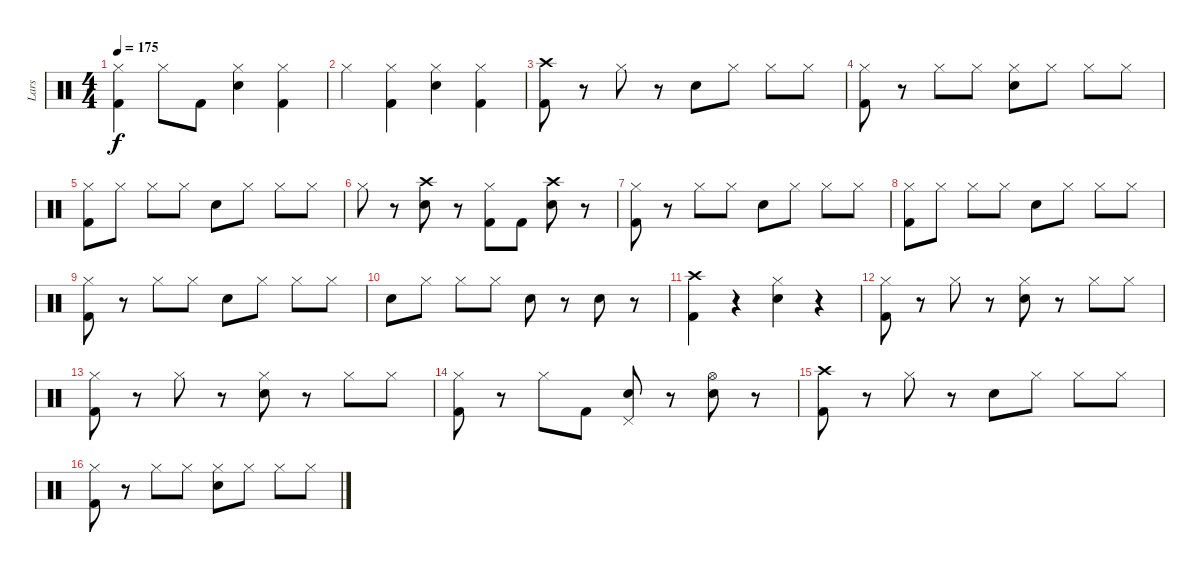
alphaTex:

\track ("Lars" "Lars") {instrument percussion}
\staff {score}
\articulation defaults
\ts (4 4)
\tempo 175
\clef neutral
\ks c
("Hi-Hat (closed)" "Kick (hit) 2").4{dy f} "Hi-Hat (closed)".8 "Kick (hit) 2".8 ("Hi-Hat (closed)" "Electric Snare (hit)").4 ("Hi-Hat (closed)" "Kick (hit) 2").4 |
"Hi-Hat (closed)".4 ("Hi-Hat (closed)" "Kick (hit) 2").4 ("Hi-Hat (closed)" "Electric Snare (hit)").4 ("Hi-Hat (closed)" "Kick (hit) 2").4 |
("Crash high (hit)" "Kick (hit) 2").8 r.8 "Hi-Hat (closed)".8 r.8 "Electric Snare (hit)".8 "Hi-Hat (closed)".8 "Hi-Hat (closed)".8 "Hi-Hat (closed)".8 |
("Hi-Hat (closed)" "Kick (hit) 2").8 r.8 "Hi-Hat (closed)".8 "Hi-Hat (closed)".8 ("Hi-Hat (closed)" "Electric Snare (hit)").8 "Hi-Hat (closed)".8 "Hi-Hat (closed)".8 "Hi-Hat (closed)".8 |
("Hi-Hat (closed)" "Kick (hit) 2").8 "Hi-Hat (closed)".8 "Hi-Hat (closed)".8 "Hi-Hat (closed)".8 "Electric Snare (hit)".8 "Hi-Hat (closed)".8 "Hi-Hat (closed)".8 "Hi-Hat (closed)".8 |
"Hi-Hat (closed)".8 r.8 ("Crash high (hit)" "Electric Snare (hit)").8 r.8 ("Hi-Hat (closed)" "Kick (hit) 2").8 "Kick (hit) 2".8 ("Crash high (hit)" "Electric Snare (hit)").8 r.8 |
("Hi-Hat (closed)" "Kick (hit) 2").8 r.8 "Hi-Hat (closed)".8 "Hi-Hat (closed)".8 "Electric Snare (hit)".8 "Hi-Hat (closed)".8 "Hi-Hat (closed)".8 "Hi-Hat (closed)".8 |
("Hi-Hat (closed)" "Kick (hit) 2").8 "Hi-Hat (closed)".8 "Hi-Hat (closed)".8 "Hi-Hat (closed)".8 "Electric Snare (hit)".8 "Hi-Hat (closed)".8 "Hi-Hat (closed)".8 "Hi-Hat (closed)".8 |
("Hi-Hat (closed)" "Kick (hit) 2").8 r.8 "Hi-Hat (closed)".8 "Hi-Hat (closed)".8 "Electric Snare (hit)".8 "Hi-Hat (closed)".8 "Hi-Hat (closed)".8 "Hi-Hat (closed)".8 |
"Electric Snare (hit)".8 "Hi-Hat (closed)".8 "Hi-Hat (closed)".8 "Hi-Hat (closed)".8 "Electric Snare (hit)".8 r.8 "Electric Snare (hit)".8 r.8 |
("Crash high (hit)" "Kick (hit) 2").4 r.4 ("Hi-Hat (closed)" "Electric Snare (hit)").4 r.4 |
("Hi-Hat (closed)" "Kick (hit) 2").8 r.8 "Hi-Hat (closed)".8 r.8 ("Hi-Hat (closed)" "Electric Snare (hit)").8 r.8 "Hi-Hat (closed)".8 "Hi-Hat (closed)".8 |
("Hi-Hat (closed)" "Kick (hit) 2").8 r.8 "Hi-Hat (closed)".8 r.8 ("Hi-Hat (closed)" "Electric Snare (hit)").8 r.8 "Hi-Hat (closed)".8 "Hi-Hat (closed)".8 |
("Hi-Hat (closed)" "Kick (hit) 2").8 r.8 "Hi-Hat (closed)".8 "Kick (hit) 2".8 ("Pedal Hi-Hat (hit)" "Electric Snare (hit)").8 r.8 ("Hi-Hat (open)" "Electric Snare (hit)").8 r.8 |
("Crash high (hit)" "Kick (hit) 2").8 r.8 "Hi-Hat (closed)".8 r.8 "Electric Snare (hit)".8 "Hi-Hat (closed)".8 "Hi-Hat (closed)".8 "Hi-Hat (closed)".8 |
("Hi-Hat (closed)" "Kick (hit) 2").8 r.8 "Hi-Hat (closed)".8 "Hi-Hat (closed)".8 ("Hi-Hat (closed)" "Electric Snare (hit)").8 "Hi-Hat (closed)".8 "Hi-Hat (closed)".8 "Hi-Hat (closed)".8
